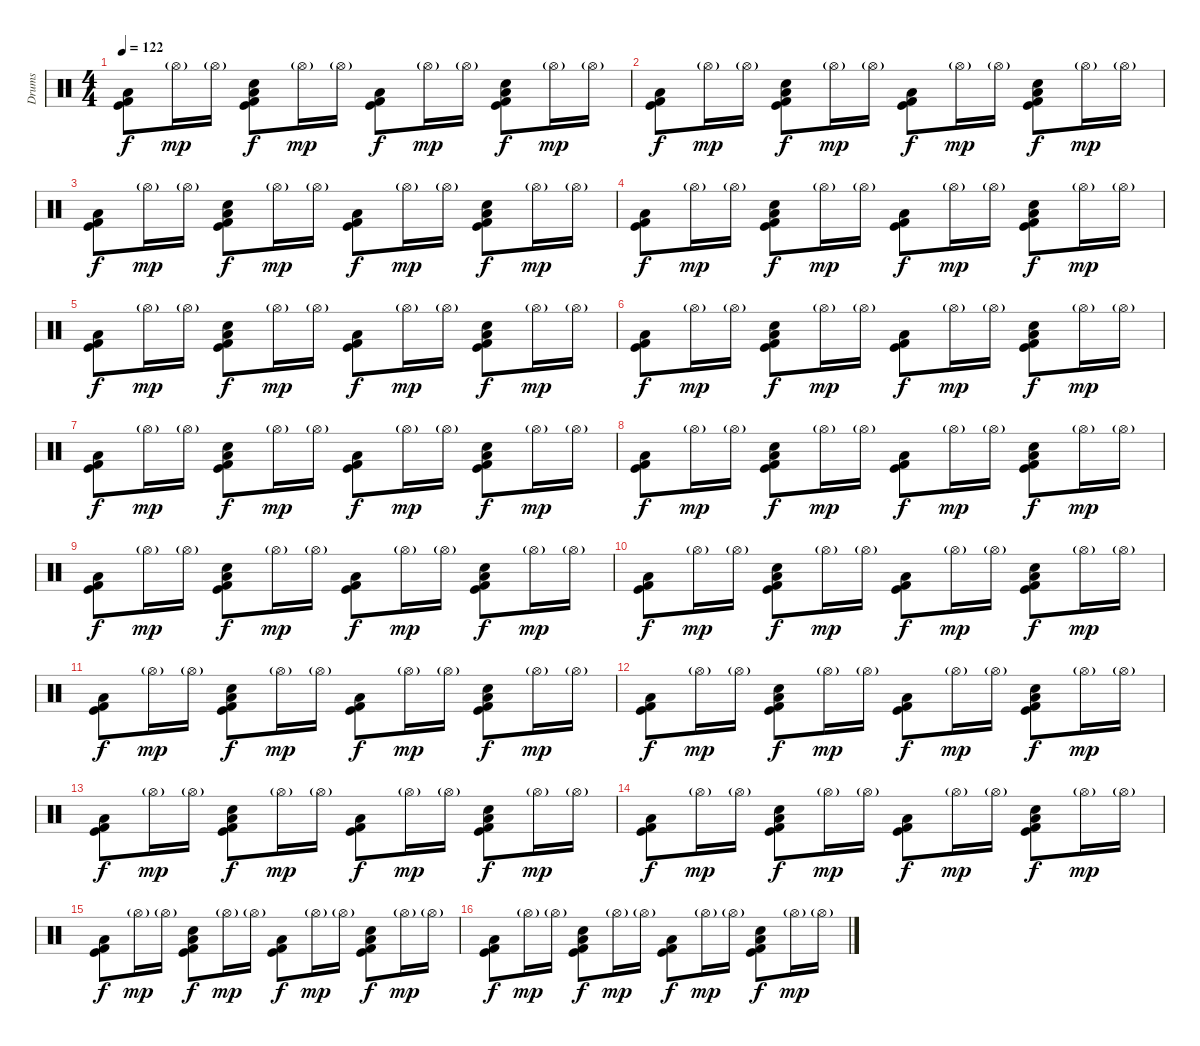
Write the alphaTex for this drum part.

\track ("Drums" "Drums") {instrument percussion}
\staff {score}
\articulation defaults
\ts (4 4)
\tempo 122
\clef neutral
\ks c
("Kick (hit)" "Kick (hit) 2" "Low Floor Tom (hit)").8{dy f} "Hi-Hat (open)"{g}.16{dy mp} "Hi-Hat (open)"{g}.16 ("Electric Snare (hit)" "Kick (hit)" "Kick (hit) 2" "Low Floor Tom (hit)").8{dy f} "Hi-Hat (open)"{g}.16{dy mp} "Hi-Hat (open)"{g}.16 ("Kick (hit)" "Kick (hit) 2" "Low Floor Tom (hit)").8{dy f} "Hi-Hat (open)"{g}.16{dy mp} "Hi-Hat (open)"{g}.16 ("Electric Snare (hit)" "Kick (hit)" "Kick (hit) 2" "Low Floor Tom (hit)").8{dy f} "Hi-Hat (open)"{g}.16{dy mp} "Hi-Hat (open)"{g}.16 |
("Kick (hit)" "Kick (hit) 2" "Low Floor Tom (hit)").8{dy f} "Hi-Hat (open)"{g}.16{dy mp} "Hi-Hat (open)"{g}.16 ("Electric Snare (hit)" "Kick (hit)" "Kick (hit) 2" "Low Floor Tom (hit)").8{dy f} "Hi-Hat (open)"{g}.16{dy mp} "Hi-Hat (open)"{g}.16 ("Kick (hit)" "Kick (hit) 2" "Low Floor Tom (hit)").8{dy f} "Hi-Hat (open)"{g}.16{dy mp} "Hi-Hat (open)"{g}.16 ("Electric Snare (hit)" "Kick (hit)" "Kick (hit) 2" "Low Floor Tom (hit)").8{dy f} "Hi-Hat (open)"{g}.16{dy mp} "Hi-Hat (open)"{g}.16 |
("Kick (hit)" "Kick (hit) 2" "Low Floor Tom (hit)").8{dy f} "Hi-Hat (open)"{g}.16{dy mp} "Hi-Hat (open)"{g}.16 ("Electric Snare (hit)" "Kick (hit)" "Kick (hit) 2" "Low Floor Tom (hit)").8{dy f} "Hi-Hat (open)"{g}.16{dy mp} "Hi-Hat (open)"{g}.16 ("Kick (hit)" "Kick (hit) 2" "Low Floor Tom (hit)").8{dy f} "Hi-Hat (open)"{g}.16{dy mp} "Hi-Hat (open)"{g}.16 ("Electric Snare (hit)" "Kick (hit)" "Kick (hit) 2" "Low Floor Tom (hit)").8{dy f} "Hi-Hat (open)"{g}.16{dy mp} "Hi-Hat (open)"{g}.16 |
("Kick (hit)" "Kick (hit) 2" "Low Floor Tom (hit)").8{dy f} "Hi-Hat (open)"{g}.16{dy mp} "Hi-Hat (open)"{g}.16 ("Electric Snare (hit)" "Kick (hit)" "Kick (hit) 2" "Low Floor Tom (hit)").8{dy f} "Hi-Hat (open)"{g}.16{dy mp} "Hi-Hat (open)"{g}.16 ("Kick (hit)" "Kick (hit) 2" "Low Floor Tom (hit)").8{dy f} "Hi-Hat (open)"{g}.16{dy mp} "Hi-Hat (open)"{g}.16 ("Electric Snare (hit)" "Kick (hit)" "Kick (hit) 2" "Low Floor Tom (hit)").8{dy f} "Hi-Hat (open)"{g}.16{dy mp} "Hi-Hat (open)"{g}.16 |
("Kick (hit)" "Kick (hit) 2" "Low Floor Tom (hit)").8{dy f} "Hi-Hat (open)"{g}.16{dy mp} "Hi-Hat (open)"{g}.16 ("Electric Snare (hit)" "Kick (hit)" "Kick (hit) 2" "Low Floor Tom (hit)").8{dy f} "Hi-Hat (open)"{g}.16{dy mp} "Hi-Hat (open)"{g}.16 ("Kick (hit)" "Kick (hit) 2" "Low Floor Tom (hit)").8{dy f} "Hi-Hat (open)"{g}.16{dy mp} "Hi-Hat (open)"{g}.16 ("Electric Snare (hit)" "Kick (hit)" "Kick (hit) 2" "Low Floor Tom (hit)").8{dy f} "Hi-Hat (open)"{g}.16{dy mp} "Hi-Hat (open)"{g}.16 |
("Kick (hit)" "Kick (hit) 2" "Low Floor Tom (hit)").8{dy f} "Hi-Hat (open)"{g}.16{dy mp} "Hi-Hat (open)"{g}.16 ("Electric Snare (hit)" "Kick (hit)" "Kick (hit) 2" "Low Floor Tom (hit)").8{dy f} "Hi-Hat (open)"{g}.16{dy mp} "Hi-Hat (open)"{g}.16 ("Kick (hit)" "Kick (hit) 2" "Low Floor Tom (hit)").8{dy f} "Hi-Hat (open)"{g}.16{dy mp} "Hi-Hat (open)"{g}.16 ("Electric Snare (hit)" "Kick (hit)" "Kick (hit) 2" "Low Floor Tom (hit)").8{dy f} "Hi-Hat (open)"{g}.16{dy mp} "Hi-Hat (open)"{g}.16 |
("Kick (hit)" "Kick (hit) 2" "Low Floor Tom (hit)").8{dy f} "Hi-Hat (open)"{g}.16{dy mp} "Hi-Hat (open)"{g}.16 ("Electric Snare (hit)" "Kick (hit)" "Kick (hit) 2" "Low Floor Tom (hit)").8{dy f} "Hi-Hat (open)"{g}.16{dy mp} "Hi-Hat (open)"{g}.16 ("Kick (hit)" "Kick (hit) 2" "Low Floor Tom (hit)").8{dy f} "Hi-Hat (open)"{g}.16{dy mp} "Hi-Hat (open)"{g}.16 ("Electric Snare (hit)" "Kick (hit)" "Kick (hit) 2" "Low Floor Tom (hit)").8{dy f} "Hi-Hat (open)"{g}.16{dy mp} "Hi-Hat (open)"{g}.16 |
("Kick (hit)" "Kick (hit) 2" "Low Floor Tom (hit)").8{dy f} "Hi-Hat (open)"{g}.16{dy mp} "Hi-Hat (open)"{g}.16 ("Electric Snare (hit)" "Kick (hit)" "Kick (hit) 2" "Low Floor Tom (hit)").8{dy f} "Hi-Hat (open)"{g}.16{dy mp} "Hi-Hat (open)"{g}.16 ("Kick (hit)" "Kick (hit) 2" "Low Floor Tom (hit)").8{dy f} "Hi-Hat (open)"{g}.16{dy mp} "Hi-Hat (open)"{g}.16 ("Electric Snare (hit)" "Kick (hit)" "Kick (hit) 2" "Low Floor Tom (hit)").8{dy f} "Hi-Hat (open)"{g}.16{dy mp} "Hi-Hat (open)"{g}.16 |
("Kick (hit)" "Kick (hit) 2" "Low Floor Tom (hit)").8{dy f} "Hi-Hat (open)"{g}.16{dy mp} "Hi-Hat (open)"{g}.16 ("Electric Snare (hit)" "Kick (hit)" "Kick (hit) 2" "Low Floor Tom (hit)").8{dy f} "Hi-Hat (open)"{g}.16{dy mp} "Hi-Hat (open)"{g}.16 ("Kick (hit)" "Kick (hit) 2" "Low Floor Tom (hit)").8{dy f} "Hi-Hat (open)"{g}.16{dy mp} "Hi-Hat (open)"{g}.16 ("Electric Snare (hit)" "Kick (hit)" "Kick (hit) 2" "Low Floor Tom (hit)").8{dy f} "Hi-Hat (open)"{g}.16{dy mp} "Hi-Hat (open)"{g}.16 |
("Kick (hit)" "Kick (hit) 2" "Low Floor Tom (hit)").8{dy f} "Hi-Hat (open)"{g}.16{dy mp} "Hi-Hat (open)"{g}.16 ("Electric Snare (hit)" "Kick (hit)" "Kick (hit) 2" "Low Floor Tom (hit)").8{dy f} "Hi-Hat (open)"{g}.16{dy mp} "Hi-Hat (open)"{g}.16 ("Kick (hit)" "Kick (hit) 2" "Low Floor Tom (hit)").8{dy f} "Hi-Hat (open)"{g}.16{dy mp} "Hi-Hat (open)"{g}.16 ("Electric Snare (hit)" "Kick (hit)" "Kick (hit) 2" "Low Floor Tom (hit)").8{dy f} "Hi-Hat (open)"{g}.16{dy mp} "Hi-Hat (open)"{g}.16 |
("Kick (hit)" "Kick (hit) 2" "Low Floor Tom (hit)").8{dy f} "Hi-Hat (open)"{g}.16{dy mp} "Hi-Hat (open)"{g}.16 ("Electric Snare (hit)" "Kick (hit)" "Kick (hit) 2" "Low Floor Tom (hit)").8{dy f} "Hi-Hat (open)"{g}.16{dy mp} "Hi-Hat (open)"{g}.16 ("Kick (hit)" "Kick (hit) 2" "Low Floor Tom (hit)").8{dy f} "Hi-Hat (open)"{g}.16{dy mp} "Hi-Hat (open)"{g}.16 ("Electric Snare (hit)" "Kick (hit)" "Kick (hit) 2" "Low Floor Tom (hit)").8{dy f} "Hi-Hat (open)"{g}.16{dy mp} "Hi-Hat (open)"{g}.16 |
("Kick (hit)" "Kick (hit) 2" "Low Floor Tom (hit)").8{dy f} "Hi-Hat (open)"{g}.16{dy mp} "Hi-Hat (open)"{g}.16 ("Electric Snare (hit)" "Kick (hit)" "Kick (hit) 2" "Low Floor Tom (hit)").8{dy f} "Hi-Hat (open)"{g}.16{dy mp} "Hi-Hat (open)"{g}.16 ("Kick (hit)" "Kick (hit) 2" "Low Floor Tom (hit)").8{dy f} "Hi-Hat (open)"{g}.16{dy mp} "Hi-Hat (open)"{g}.16 ("Electric Snare (hit)" "Kick (hit)" "Kick (hit) 2" "Low Floor Tom (hit)").8{dy f} "Hi-Hat (open)"{g}.16{dy mp} "Hi-Hat (open)"{g}.16 |
("Kick (hit)" "Kick (hit) 2" "Low Floor Tom (hit)").8{dy f} "Hi-Hat (open)"{g}.16{dy mp} "Hi-Hat (open)"{g}.16 ("Electric Snare (hit)" "Kick (hit)" "Kick (hit) 2" "Low Floor Tom (hit)").8{dy f} "Hi-Hat (open)"{g}.16{dy mp} "Hi-Hat (open)"{g}.16 ("Kick (hit)" "Kick (hit) 2" "Low Floor Tom (hit)").8{dy f} "Hi-Hat (open)"{g}.16{dy mp} "Hi-Hat (open)"{g}.16 ("Electric Snare (hit)" "Kick (hit)" "Kick (hit) 2" "Low Floor Tom (hit)").8{dy f} "Hi-Hat (open)"{g}.16{dy mp} "Hi-Hat (open)"{g}.16 |
("Kick (hit)" "Kick (hit) 2" "Low Floor Tom (hit)").8{dy f} "Hi-Hat (open)"{g}.16{dy mp} "Hi-Hat (open)"{g}.16 ("Electric Snare (hit)" "Kick (hit)" "Kick (hit) 2" "Low Floor Tom (hit)").8{dy f} "Hi-Hat (open)"{g}.16{dy mp} "Hi-Hat (open)"{g}.16 ("Kick (hit)" "Kick (hit) 2" "Low Floor Tom (hit)").8{dy f} "Hi-Hat (open)"{g}.16{dy mp} "Hi-Hat (open)"{g}.16 ("Electric Snare (hit)" "Kick (hit)" "Kick (hit) 2" "Low Floor Tom (hit)").8{dy f} "Hi-Hat (open)"{g}.16{dy mp} "Hi-Hat (open)"{g}.16 |
("Kick (hit)" "Kick (hit) 2" "Low Floor Tom (hit)").8{dy f} "Hi-Hat (open)"{g}.16{dy mp} "Hi-Hat (open)"{g}.16 ("Electric Snare (hit)" "Kick (hit)" "Kick (hit) 2" "Low Floor Tom (hit)").8{dy f} "Hi-Hat (open)"{g}.16{dy mp} "Hi-Hat (open)"{g}.16 ("Kick (hit)" "Kick (hit) 2" "Low Floor Tom (hit)").8{dy f} "Hi-Hat (open)"{g}.16{dy mp} "Hi-Hat (open)"{g}.16 ("Electric Snare (hit)" "Kick (hit)" "Kick (hit) 2" "Low Floor Tom (hit)").8{dy f} "Hi-Hat (open)"{g}.16{dy mp} "Hi-Hat (open)"{g}.16 |
("Kick (hit)" "Kick (hit) 2" "Low Floor Tom (hit)").8{dy f} "Hi-Hat (open)"{g}.16{dy mp} "Hi-Hat (open)"{g}.16 ("Electric Snare (hit)" "Kick (hit)" "Kick (hit) 2" "Low Floor Tom (hit)").8{dy f} "Hi-Hat (open)"{g}.16{dy mp} "Hi-Hat (open)"{g}.16 ("Kick (hit)" "Kick (hit) 2" "Low Floor Tom (hit)").8{dy f} "Hi-Hat (open)"{g}.16{dy mp} "Hi-Hat (open)"{g}.16 ("Electric Snare (hit)" "Kick (hit)" "Kick (hit) 2" "Low Floor Tom (hit)").8{dy f} "Hi-Hat (open)"{g}.16{dy mp} "Hi-Hat (open)"{g}.16
